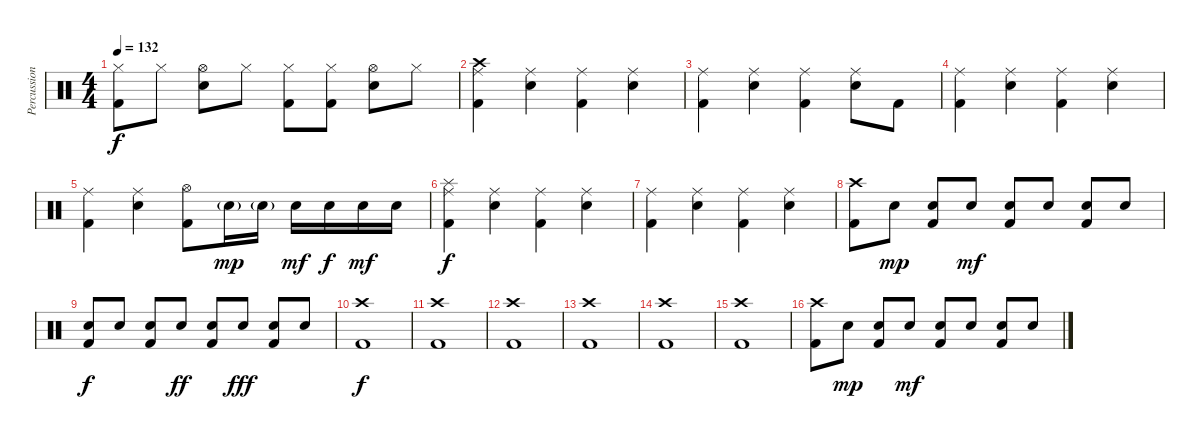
\track ("Percussion" "Percussion") {instrument percussion}
\staff {score}
\articulation defaults
\ts (4 4)
\tempo 132
\clef neutral
\ks c
("Hi-Hat (closed)" "Kick (hit) 2").8{dy f} "Hi-Hat (closed)".8 ("Hi-Hat (open)" "Snare (hit) 2").8 "Hi-Hat (closed)".8 ("Hi-Hat (closed)" "Kick (hit) 2").8 ("Hi-Hat (closed)" "Kick (hit) 2").8 ("Hi-Hat (open)" "Snare (hit) 2").8 "Hi-Hat (closed)".8 |
("Crash high (hit)" "Ride (middle)" "Kick (hit) 2").4 ("Ride (middle)" "Snare (hit) 2").4 ("Ride (middle)" "Kick (hit) 2").4 ("Ride (middle)" "Snare (hit) 2").4 |
("Ride (middle)" "Kick (hit) 2").4 ("Ride (middle)" "Snare (hit) 2").4 ("Ride (middle)" "Kick (hit) 2").4 ("Ride (middle)" "Snare (hit) 2").8 "Kick (hit) 2".8 |
("Ride (middle)" "Kick (hit) 2").4 ("Ride (middle)" "Snare (hit) 2").4 ("Ride (middle)" "Kick (hit) 2").4 ("Ride (middle)" "Snare (hit) 2").4 |
("Ride (middle)" "Kick (hit) 2").4 ("Snare (hit) 2" "Ride (middle)").4 ("Hi-Hat (open)" "Kick (hit) 2").8 "Snare (hit) 2"{g}.16{dy mp} "Snare (hit) 2"{g}.16 "Snare (hit) 2".16{dy mf} "Snare (hit) 2".16{dy f} "Snare (hit) 2".16{dy mf} "Snare (hit) 2".16 |
("Ride (middle)" "Kick (hit) 2" "Splash (hit)").4{dy f} ("Ride (middle)" "Snare (hit) 2").4 ("Ride (middle)" "Kick (hit) 2").4 ("Ride (middle)" "Snare (hit) 2").4 |
("Ride (middle)" "Kick (hit) 2").4 ("Ride (middle)" "Snare (hit) 2").4 ("Ride (middle)" "Kick (hit) 2").4 ("Ride (middle)" "Snare (hit) 2").4 |
("Kick (hit) 2" "Crash high (hit)").8 "Snare (hit) 2".8{dy mp} ("Snare (hit) 2" "Kick (hit) 2").8 "Snare (hit) 2".8{dy mf} ("Snare (hit) 2" "Kick (hit) 2").8 "Snare (hit) 2".8 ("Snare (hit) 2" "Kick (hit) 2").8 "Snare (hit) 2".8 |
("Snare (hit) 2" "Kick (hit) 2").8{dy f} "Snare (hit) 2".8 ("Snare (hit) 2" "Kick (hit) 2").8 "Snare (hit) 2".8{dy ff} ("Snare (hit) 2" "Kick (hit) 2").8 "Snare (hit) 2".8{dy fff} ("Snare (hit) 2" "Kick (hit) 2").8 "Snare (hit) 2".8 |
("Crash high (hit)" "Kick (hit) 2").1{dy f} |
("Crash high (hit)" "Kick (hit) 2").1 |
("Crash high (hit)" "Kick (hit) 2").1 |
("Crash high (hit)" "Kick (hit) 2").1 |
("Crash high (hit)" "Kick (hit) 2").1 |
("Crash high (hit)" "Kick (hit) 2").1 |
("Kick (hit) 2" "Crash high (hit)").8 "Snare (hit) 2".8{dy mp} ("Snare (hit) 2" "Kick (hit) 2").8 "Snare (hit) 2".8{dy mf} ("Snare (hit) 2" "Kick (hit) 2").8 "Snare (hit) 2".8 ("Snare (hit) 2" "Kick (hit) 2").8 "Snare (hit) 2".8
